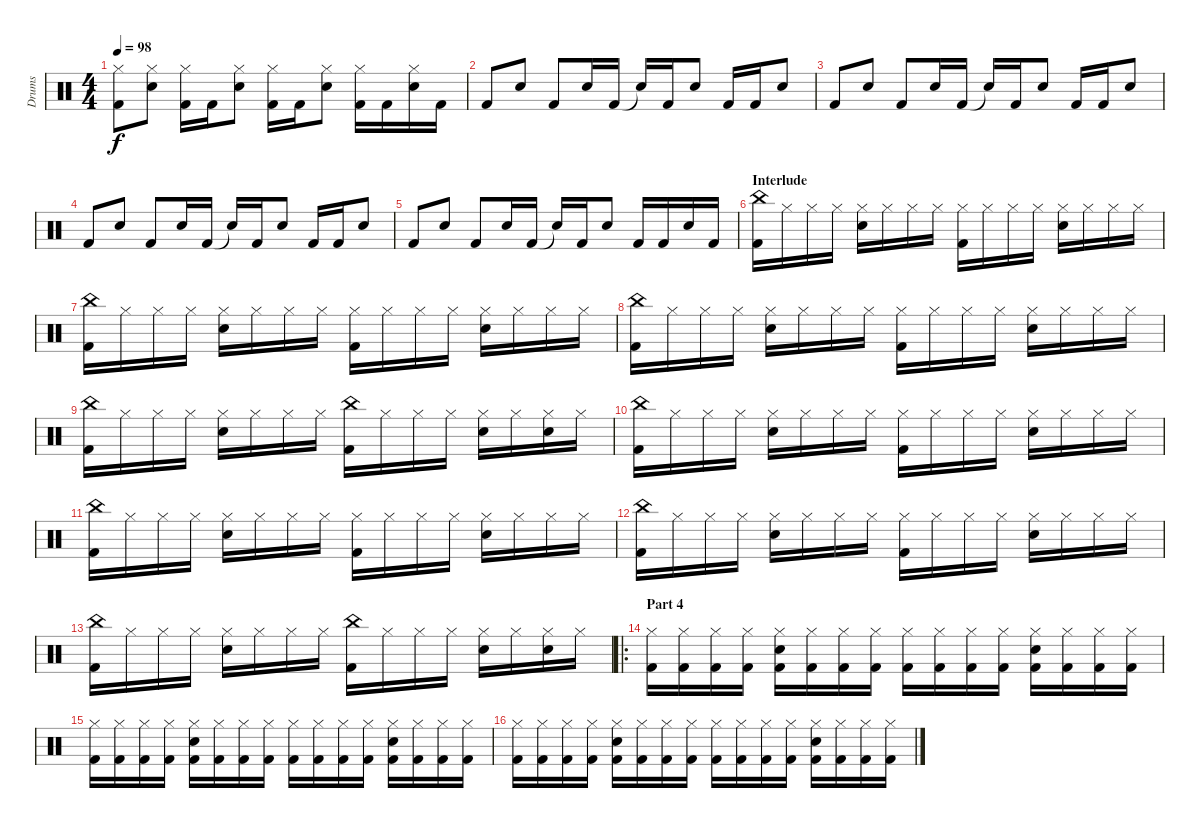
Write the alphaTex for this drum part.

\track ("Drums" "Drums") {instrument percussion}
\staff {score}
\articulation defaults
\ts (4 4)
\tempo 98
\clef neutral
\ks c
("Hi-Hat (closed)" "Kick (hit) 2").8{dy f} ("Hi-Hat (closed)" "Electric Snare (hit)").8 ("Hi-Hat (closed)" "Kick (hit) 2").16 "Kick (hit) 2".16 ("Hi-Hat (closed)" "Electric Snare (hit)").8 ("Hi-Hat (closed)" "Kick (hit) 2").16 "Kick (hit) 2".16 ("Hi-Hat (closed)" "Electric Snare (hit)").8 ("Hi-Hat (closed)" "Kick (hit) 2").16 "Kick (hit) 2".16 ("Hi-Hat (closed)" "Electric Snare (hit)").16 "Kick (hit) 2".16 |
"Kick (hit) 2".8 "Electric Snare (hit)".8 "Kick (hit) 2".8 "Electric Snare (hit)".16 "Kick (hit) 2".16 "Snare (hit)"{t}.16 "Kick (hit) 2".16 "Electric Snare (hit)".8 "Kick (hit) 2".16 "Kick (hit) 2".16 "Electric Snare (hit)".8 |
"Kick (hit) 2".8 "Electric Snare (hit)".8 "Kick (hit) 2".8 "Electric Snare (hit)".16 "Kick (hit) 2".16 "Snare (hit)"{t}.16 "Kick (hit) 2".16 "Electric Snare (hit)".8 "Kick (hit) 2".16 "Kick (hit) 2".16 "Electric Snare (hit)".8 |
"Kick (hit) 2".8 "Electric Snare (hit)".8 "Kick (hit) 2".8 "Electric Snare (hit)".16 "Kick (hit) 2".16 "Snare (hit)"{t}.16 "Kick (hit) 2".16 "Electric Snare (hit)".8 "Kick (hit) 2".16 "Kick (hit) 2".16 "Electric Snare (hit)".8 |
"Kick (hit) 2".8 "Electric Snare (hit)".8 "Kick (hit) 2".8 "Electric Snare (hit)".16 "Kick (hit) 2".16 "Snare (hit)"{t}.16 "Kick (hit) 2".16 "Electric Snare (hit)".8 "Kick (hit) 2".16 "Kick (hit) 2".16 "Electric Snare (hit)".16 "Kick (hit) 2".16 |
\section ("" "Interlude")
("China (hit)" "Kick (hit) 2").16 "Hi-Hat (closed)".16 "Hi-Hat (closed)".16 "Hi-Hat (closed)".16 ("Hi-Hat (closed)" "Electric Snare (hit)").16 "Hi-Hat (closed)".16 "Hi-Hat (closed)".16 "Hi-Hat (closed)".16 ("Hi-Hat (closed)" "Kick (hit) 2").16 "Hi-Hat (closed)".16 "Hi-Hat (closed)".16 "Hi-Hat (closed)".16 ("Hi-Hat (closed)" "Electric Snare (hit)").16 "Hi-Hat (closed)".16 "Hi-Hat (closed)".16 "Hi-Hat (closed)".16 |
("China (hit)" "Kick (hit) 2").16 "Hi-Hat (closed)".16 "Hi-Hat (closed)".16 "Hi-Hat (closed)".16 ("Hi-Hat (closed)" "Electric Snare (hit)").16 "Hi-Hat (closed)".16 "Hi-Hat (closed)".16 "Hi-Hat (closed)".16 ("Hi-Hat (closed)" "Kick (hit) 2").16 "Hi-Hat (closed)".16 "Hi-Hat (closed)".16 "Hi-Hat (closed)".16 ("Hi-Hat (closed)" "Electric Snare (hit)").16 "Hi-Hat (closed)".16 "Hi-Hat (closed)".16 "Hi-Hat (closed)".16 |
("China (hit)" "Kick (hit) 2").16 "Hi-Hat (closed)".16 "Hi-Hat (closed)".16 "Hi-Hat (closed)".16 ("Hi-Hat (closed)" "Electric Snare (hit)").16 "Hi-Hat (closed)".16 "Hi-Hat (closed)".16 "Hi-Hat (closed)".16 ("Hi-Hat (closed)" "Kick (hit) 2").16 "Hi-Hat (closed)".16 "Hi-Hat (closed)".16 "Hi-Hat (closed)".16 ("Hi-Hat (closed)" "Electric Snare (hit)").16 "Hi-Hat (closed)".16 "Hi-Hat (closed)".16 "Hi-Hat (closed)".16 |
("China (hit)" "Kick (hit) 2").16 "Hi-Hat (closed)".16 "Hi-Hat (closed)".16 "Hi-Hat (closed)".16 ("Hi-Hat (closed)" "Electric Snare (hit)").16 "Hi-Hat (closed)".16 "Hi-Hat (closed)".16 "Hi-Hat (closed)".16 ("China (hit)" "Kick (hit) 2").16 "Hi-Hat (closed)".16 "Hi-Hat (closed)".16 "Hi-Hat (closed)".16 ("Hi-Hat (closed)" "Electric Snare (hit)").16 "Hi-Hat (closed)".16 ("Hi-Hat (closed)" "Electric Snare (hit)").16 "Hi-Hat (closed)".16 |
("China (hit)" "Kick (hit) 2").16 "Hi-Hat (closed)".16 "Hi-Hat (closed)".16 "Hi-Hat (closed)".16 ("Hi-Hat (closed)" "Electric Snare (hit)").16 "Hi-Hat (closed)".16 "Hi-Hat (closed)".16 "Hi-Hat (closed)".16 ("Hi-Hat (closed)" "Kick (hit) 2").16 "Hi-Hat (closed)".16 "Hi-Hat (closed)".16 "Hi-Hat (closed)".16 ("Hi-Hat (closed)" "Electric Snare (hit)").16 "Hi-Hat (closed)".16 "Hi-Hat (closed)".16 "Hi-Hat (closed)".16 |
("China (hit)" "Kick (hit) 2").16 "Hi-Hat (closed)".16 "Hi-Hat (closed)".16 "Hi-Hat (closed)".16 ("Hi-Hat (closed)" "Electric Snare (hit)").16 "Hi-Hat (closed)".16 "Hi-Hat (closed)".16 "Hi-Hat (closed)".16 ("Hi-Hat (closed)" "Kick (hit) 2").16 "Hi-Hat (closed)".16 "Hi-Hat (closed)".16 "Hi-Hat (closed)".16 ("Hi-Hat (closed)" "Electric Snare (hit)").16 "Hi-Hat (closed)".16 "Hi-Hat (closed)".16 "Hi-Hat (closed)".16 |
("China (hit)" "Kick (hit) 2").16 "Hi-Hat (closed)".16 "Hi-Hat (closed)".16 "Hi-Hat (closed)".16 ("Hi-Hat (closed)" "Electric Snare (hit)").16 "Hi-Hat (closed)".16 "Hi-Hat (closed)".16 "Hi-Hat (closed)".16 ("Hi-Hat (closed)" "Kick (hit) 2").16 "Hi-Hat (closed)".16 "Hi-Hat (closed)".16 "Hi-Hat (closed)".16 ("Hi-Hat (closed)" "Electric Snare (hit)").16 "Hi-Hat (closed)".16 "Hi-Hat (closed)".16 "Hi-Hat (closed)".16 |
("China (hit)" "Kick (hit) 2").16 "Hi-Hat (closed)".16 "Hi-Hat (closed)".16 "Hi-Hat (closed)".16 ("Hi-Hat (closed)" "Electric Snare (hit)").16 "Hi-Hat (closed)".16 "Hi-Hat (closed)".16 "Hi-Hat (closed)".16 ("China (hit)" "Kick (hit) 2").16 "Hi-Hat (closed)".16 "Hi-Hat (closed)".16 "Hi-Hat (closed)".16 ("Hi-Hat (closed)" "Electric Snare (hit)").16 "Hi-Hat (closed)".16 ("Hi-Hat (closed)" "Electric Snare (hit)").16 "Hi-Hat (closed)".16 |
\ro
\section ("" "Part 4")
("Hi-Hat (closed)" "Kick (hit) 2").16 ("Hi-Hat (closed)" "Kick (hit) 2").16 ("Hi-Hat (closed)" "Kick (hit) 2").16 ("Hi-Hat (closed)" "Kick (hit) 2").16 ("Hi-Hat (closed)" "Electric Snare (hit)" "Kick (hit) 2").16 ("Hi-Hat (closed)" "Kick (hit) 2").16 ("Hi-Hat (closed)" "Kick (hit) 2").16 ("Hi-Hat (closed)" "Kick (hit) 2").16 ("Hi-Hat (closed)" "Kick (hit) 2").16 ("Hi-Hat (closed)" "Kick (hit) 2").16 ("Hi-Hat (closed)" "Kick (hit) 2").16 ("Hi-Hat (closed)" "Kick (hit) 2").16 ("Hi-Hat (closed)" "Electric Snare (hit)" "Kick (hit) 2").16 ("Hi-Hat (closed)" "Kick (hit) 2").16 ("Hi-Hat (closed)" "Kick (hit) 2").16 ("Hi-Hat (closed)" "Kick (hit) 2").16 |
("Hi-Hat (closed)" "Kick (hit) 2").16 ("Hi-Hat (closed)" "Kick (hit) 2").16 ("Hi-Hat (closed)" "Kick (hit) 2").16 ("Hi-Hat (closed)" "Kick (hit) 2").16 ("Hi-Hat (closed)" "Electric Snare (hit)" "Kick (hit) 2").16 ("Hi-Hat (closed)" "Kick (hit) 2").16 ("Hi-Hat (closed)" "Kick (hit) 2").16 ("Hi-Hat (closed)" "Kick (hit) 2").16 ("Hi-Hat (closed)" "Kick (hit) 2").16 ("Hi-Hat (closed)" "Kick (hit) 2").16 ("Hi-Hat (closed)" "Kick (hit) 2").16 ("Hi-Hat (closed)" "Kick (hit) 2").16 ("Hi-Hat (closed)" "Electric Snare (hit)" "Kick (hit) 2").16 ("Hi-Hat (closed)" "Kick (hit) 2").16 ("Hi-Hat (closed)" "Kick (hit) 2").16 ("Hi-Hat (closed)" "Kick (hit) 2").16 |
("Hi-Hat (closed)" "Kick (hit) 2").16 ("Hi-Hat (closed)" "Kick (hit) 2").16 ("Hi-Hat (closed)" "Kick (hit) 2").16 ("Hi-Hat (closed)" "Kick (hit) 2").16 ("Hi-Hat (closed)" "Electric Snare (hit)" "Kick (hit) 2").16 ("Hi-Hat (closed)" "Kick (hit) 2").16 ("Hi-Hat (closed)" "Kick (hit) 2").16 ("Hi-Hat (closed)" "Kick (hit) 2").16 ("Hi-Hat (closed)" "Kick (hit) 2").16 ("Hi-Hat (closed)" "Kick (hit) 2").16 ("Hi-Hat (closed)" "Kick (hit) 2").16 ("Hi-Hat (closed)" "Kick (hit) 2").16 ("Hi-Hat (closed)" "Electric Snare (hit)" "Kick (hit) 2").16 ("Hi-Hat (closed)" "Kick (hit) 2").16 ("Hi-Hat (closed)" "Kick (hit) 2").16 ("Hi-Hat (closed)" "Kick (hit) 2").16
